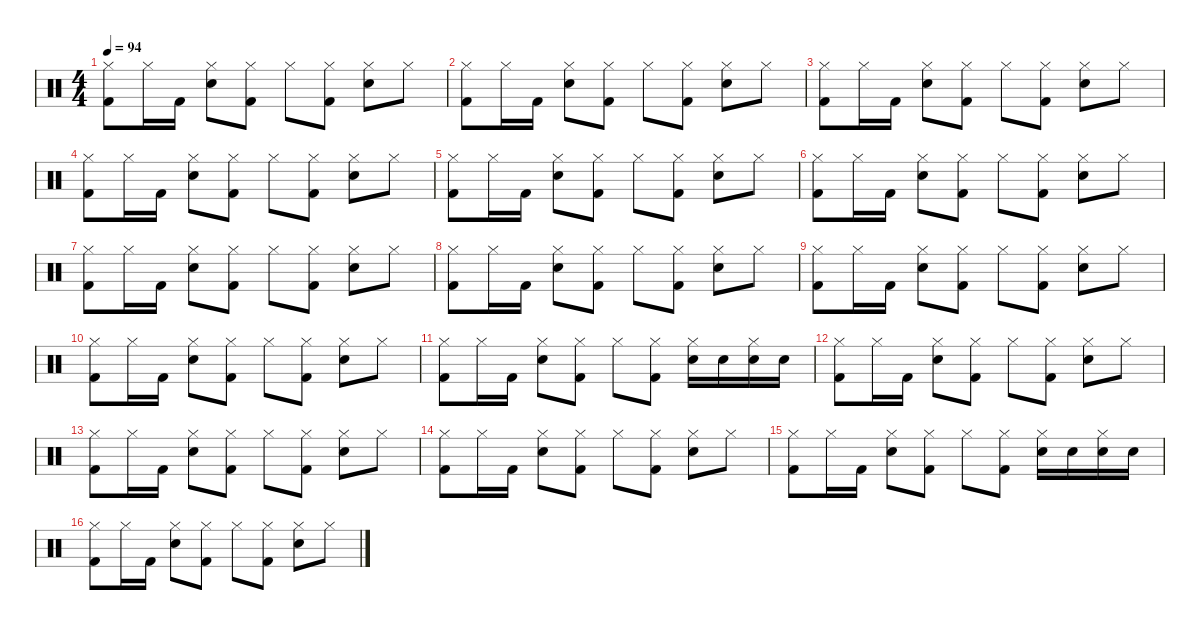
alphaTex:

\defaultSystemsLayout 4
\hideDynamics
\bracketExtendMode nobrackets
\singleTrackTrackNamePolicy hidden
\multiTrackTrackNamePolicy hidden
\otherSystemsTrackNameOrientation horizontal
\track ("Mike Joyce" "drm.") {instrument percussion}
\staff {score}
\articulation defaults
\ts (4 4)
\tempo 94
\clef neutral
\ks c
("Hi-Hat (closed)" "Kick (hit) 2").8{dy f} "Hi-Hat (closed)".16 "Kick (hit) 2".16 ("Hi-Hat (closed)" "Snare (hit) 2").8 ("Hi-Hat (closed)" "Kick (hit) 2").8 "Hi-Hat (closed)".8 ("Hi-Hat (closed)" "Kick (hit) 2").8 ("Hi-Hat (closed)" "Snare (hit) 2").8 "Hi-Hat (closed)".8 |
("Hi-Hat (closed)" "Kick (hit) 2").8 "Hi-Hat (closed)".16 "Kick (hit) 2".16 ("Hi-Hat (closed)" "Snare (hit) 2").8 ("Hi-Hat (closed)" "Kick (hit) 2").8 "Hi-Hat (closed)".8 ("Hi-Hat (closed)" "Kick (hit) 2").8 ("Hi-Hat (closed)" "Snare (hit) 2").8 "Hi-Hat (closed)".8 |
("Hi-Hat (closed)" "Kick (hit) 2").8 "Hi-Hat (closed)".16 "Kick (hit) 2".16 ("Hi-Hat (closed)" "Snare (hit) 2").8 ("Hi-Hat (closed)" "Kick (hit) 2").8 "Hi-Hat (closed)".8 ("Hi-Hat (closed)" "Kick (hit) 2").8 ("Hi-Hat (closed)" "Snare (hit) 2").8 "Hi-Hat (closed)".8 |
("Hi-Hat (closed)" "Kick (hit) 2").8 "Hi-Hat (closed)".16 "Kick (hit) 2".16 ("Hi-Hat (closed)" "Snare (hit) 2").8 ("Hi-Hat (closed)" "Kick (hit) 2").8 "Hi-Hat (closed)".8 ("Hi-Hat (closed)" "Kick (hit) 2").8 ("Hi-Hat (closed)" "Snare (hit) 2").8 "Hi-Hat (closed)".8 |
("Hi-Hat (closed)" "Kick (hit) 2").8 "Hi-Hat (closed)".16 "Kick (hit) 2".16 ("Hi-Hat (closed)" "Snare (hit) 2").8 ("Hi-Hat (closed)" "Kick (hit) 2").8 "Hi-Hat (closed)".8 ("Hi-Hat (closed)" "Kick (hit) 2").8 ("Hi-Hat (closed)" "Snare (hit) 2").8 "Hi-Hat (closed)".8 |
("Hi-Hat (closed)" "Kick (hit) 2").8 "Hi-Hat (closed)".16 "Kick (hit) 2".16 ("Hi-Hat (closed)" "Snare (hit) 2").8 ("Hi-Hat (closed)" "Kick (hit) 2").8 "Hi-Hat (closed)".8 ("Hi-Hat (closed)" "Kick (hit) 2").8 ("Hi-Hat (closed)" "Snare (hit) 2").8 "Hi-Hat (closed)".8 |
("Hi-Hat (closed)" "Kick (hit) 2").8 "Hi-Hat (closed)".16 "Kick (hit) 2".16 ("Hi-Hat (closed)" "Snare (hit) 2").8 ("Hi-Hat (closed)" "Kick (hit) 2").8 "Hi-Hat (closed)".8 ("Hi-Hat (closed)" "Kick (hit) 2").8 ("Hi-Hat (closed)" "Snare (hit) 2").8 "Hi-Hat (closed)".8 |
("Hi-Hat (closed)" "Kick (hit) 2").8 "Hi-Hat (closed)".16 "Kick (hit) 2".16 ("Hi-Hat (closed)" "Snare (hit) 2").8 ("Hi-Hat (closed)" "Kick (hit) 2").8 "Hi-Hat (closed)".8 ("Hi-Hat (closed)" "Kick (hit) 2").8 ("Hi-Hat (closed)" "Snare (hit) 2").8 "Hi-Hat (closed)".8 |
("Hi-Hat (closed)" "Kick (hit) 2").8 "Hi-Hat (closed)".16 "Kick (hit) 2".16 ("Hi-Hat (closed)" "Snare (hit) 2").8 ("Hi-Hat (closed)" "Kick (hit) 2").8 "Hi-Hat (closed)".8 ("Hi-Hat (closed)" "Kick (hit) 2").8 ("Hi-Hat (closed)" "Snare (hit) 2").8 "Hi-Hat (closed)".8 |
("Hi-Hat (closed)" "Kick (hit) 2").8 "Hi-Hat (closed)".16 "Kick (hit) 2".16 ("Hi-Hat (closed)" "Snare (hit) 2").8 ("Hi-Hat (closed)" "Kick (hit) 2").8 "Hi-Hat (closed)".8 ("Hi-Hat (closed)" "Kick (hit) 2").8 ("Hi-Hat (closed)" "Snare (hit) 2").8 "Hi-Hat (closed)".8 |
("Hi-Hat (closed)" "Kick (hit) 2").8 "Hi-Hat (closed)".16 "Kick (hit) 2".16 ("Hi-Hat (closed)" "Snare (hit) 2").8 ("Hi-Hat (closed)" "Kick (hit) 2").8 "Hi-Hat (closed)".8 ("Hi-Hat (closed)" "Kick (hit) 2").8 ("Hi-Hat (closed)" "Snare (hit) 2").16 "Snare (hit) 2".16 ("Hi-Hat (closed)" "Snare (hit) 2").16 "Snare (hit) 2".16 |
("Hi-Hat (closed)" "Kick (hit) 2").8 "Hi-Hat (closed)".16 "Kick (hit) 2".16 ("Hi-Hat (closed)" "Snare (hit) 2").8 ("Hi-Hat (closed)" "Kick (hit) 2").8 "Hi-Hat (closed)".8 ("Hi-Hat (closed)" "Kick (hit) 2").8 ("Hi-Hat (closed)" "Snare (hit) 2").8 "Hi-Hat (closed)".8 |
("Hi-Hat (closed)" "Kick (hit) 2").8 "Hi-Hat (closed)".16 "Kick (hit) 2".16 ("Hi-Hat (closed)" "Snare (hit) 2").8 ("Hi-Hat (closed)" "Kick (hit) 2").8 "Hi-Hat (closed)".8 ("Hi-Hat (closed)" "Kick (hit) 2").8 ("Hi-Hat (closed)" "Snare (hit) 2").8 "Hi-Hat (closed)".8 |
("Hi-Hat (closed)" "Kick (hit) 2").8 "Hi-Hat (closed)".16 "Kick (hit) 2".16 ("Hi-Hat (closed)" "Snare (hit) 2").8 ("Hi-Hat (closed)" "Kick (hit) 2").8 "Hi-Hat (closed)".8 ("Hi-Hat (closed)" "Kick (hit) 2").8 ("Hi-Hat (closed)" "Snare (hit) 2").8 "Hi-Hat (closed)".8 |
("Hi-Hat (closed)" "Kick (hit) 2").8 "Hi-Hat (closed)".16 "Kick (hit) 2".16 ("Hi-Hat (closed)" "Snare (hit) 2").8 ("Hi-Hat (closed)" "Kick (hit) 2").8 "Hi-Hat (closed)".8 ("Hi-Hat (closed)" "Kick (hit) 2").8 ("Hi-Hat (closed)" "Snare (hit) 2").16 "Snare (hit) 2".16 ("Hi-Hat (closed)" "Snare (hit) 2").16 "Snare (hit) 2".16 |
("Hi-Hat (closed)" "Kick (hit) 2").8 "Hi-Hat (closed)".16 "Kick (hit) 2".16 ("Hi-Hat (closed)" "Snare (hit) 2").8 ("Hi-Hat (closed)" "Kick (hit) 2").8 "Hi-Hat (closed)".8 ("Hi-Hat (closed)" "Kick (hit) 2").8 ("Hi-Hat (closed)" "Snare (hit) 2").8 "Hi-Hat (closed)".8
